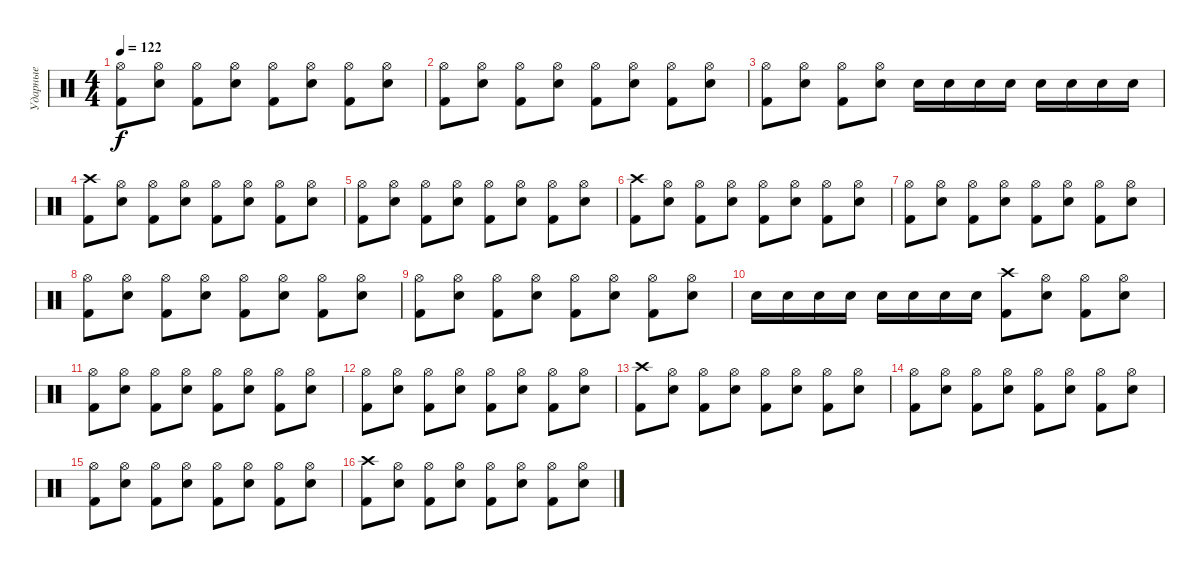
\track ("Ударные" "Ударные") {instrument percussion}
\staff {score}
\articulation defaults
\ts (4 4)
\tempo 122
\clef neutral
\ks c
("Kick (hit) 2" "Hi-Hat (open)").8{dy f} ("Snare (hit) 2" "Hi-Hat (open)").8 ("Kick (hit) 2" "Hi-Hat (open)").8 ("Snare (hit) 2" "Hi-Hat (open)").8 ("Kick (hit) 2" "Hi-Hat (open)").8 ("Snare (hit) 2" "Hi-Hat (open)").8 ("Kick (hit) 2" "Hi-Hat (open)").8 ("Snare (hit) 2" "Hi-Hat (open)").8 |
("Kick (hit) 2" "Hi-Hat (open)").8 ("Snare (hit) 2" "Hi-Hat (open)").8 ("Kick (hit) 2" "Hi-Hat (open)").8 ("Snare (hit) 2" "Hi-Hat (open)").8 ("Kick (hit) 2" "Hi-Hat (open)").8 ("Snare (hit) 2" "Hi-Hat (open)").8 ("Kick (hit) 2" "Hi-Hat (open)").8 ("Snare (hit) 2" "Hi-Hat (open)").8 |
("Kick (hit) 2" "Hi-Hat (open)").8 ("Snare (hit) 2" "Hi-Hat (open)").8 ("Kick (hit) 2" "Hi-Hat (open)").8 ("Snare (hit) 2" "Hi-Hat (open)").8 "Snare (hit) 2".16 "Snare (hit) 2".16 "Snare (hit) 2".16 "Snare (hit) 2".16 "Snare (hit) 2".16 "Snare (hit) 2".16 "Snare (hit) 2".16 "Snare (hit) 2".16 |
("Kick (hit) 2" "Crash high (hit)").8 ("Snare (hit) 2" "Hi-Hat (open)").8 ("Kick (hit) 2" "Hi-Hat (open)").8 ("Snare (hit) 2" "Hi-Hat (open)").8 ("Kick (hit) 2" "Hi-Hat (open)").8 ("Snare (hit) 2" "Hi-Hat (open)").8 ("Kick (hit) 2" "Hi-Hat (open)").8 ("Snare (hit) 2" "Hi-Hat (open)").8 |
("Kick (hit) 2" "Hi-Hat (open)").8 ("Snare (hit) 2" "Hi-Hat (open)").8 ("Kick (hit) 2" "Hi-Hat (open)").8 ("Snare (hit) 2" "Hi-Hat (open)").8 ("Kick (hit) 2" "Hi-Hat (open)").8 ("Snare (hit) 2" "Hi-Hat (open)").8 ("Kick (hit) 2" "Hi-Hat (open)").8 ("Snare (hit) 2" "Hi-Hat (open)").8 |
("Kick (hit) 2" "Crash high (hit)").8 ("Snare (hit) 2" "Hi-Hat (open)").8 ("Kick (hit) 2" "Hi-Hat (open)").8 ("Snare (hit) 2" "Hi-Hat (open)").8 ("Kick (hit) 2" "Hi-Hat (open)").8 ("Snare (hit) 2" "Hi-Hat (open)").8 ("Kick (hit) 2" "Hi-Hat (open)").8 ("Snare (hit) 2" "Hi-Hat (open)").8 |
("Kick (hit) 2" "Hi-Hat (open)").8 ("Snare (hit) 2" "Hi-Hat (open)").8 ("Kick (hit) 2" "Hi-Hat (open)").8 ("Snare (hit) 2" "Hi-Hat (open)").8 ("Kick (hit) 2" "Hi-Hat (open)").8 ("Snare (hit) 2" "Hi-Hat (open)").8 ("Kick (hit) 2" "Hi-Hat (open)").8 ("Snare (hit) 2" "Hi-Hat (open)").8 |
("Kick (hit) 2" "Hi-Hat (open)").8 ("Snare (hit) 2" "Hi-Hat (open)").8 ("Kick (hit) 2" "Hi-Hat (open)").8 ("Snare (hit) 2" "Hi-Hat (open)").8 ("Kick (hit) 2" "Hi-Hat (open)").8 ("Snare (hit) 2" "Hi-Hat (open)").8 ("Kick (hit) 2" "Hi-Hat (open)").8 ("Snare (hit) 2" "Hi-Hat (open)").8 |
("Kick (hit) 2" "Hi-Hat (open)").8 ("Snare (hit) 2" "Hi-Hat (open)").8 ("Kick (hit) 2" "Hi-Hat (open)").8 ("Snare (hit) 2" "Hi-Hat (open)").8 ("Kick (hit) 2" "Hi-Hat (open)").8 ("Snare (hit) 2" "Hi-Hat (open)").8 ("Kick (hit) 2" "Hi-Hat (open)").8 ("Snare (hit) 2" "Hi-Hat (open)").8 |
"Snare (hit) 2".16 "Snare (hit) 2".16 "Snare (hit) 2".16 "Snare (hit) 2".16 "Snare (hit) 2".16 "Snare (hit) 2".16 "Snare (hit) 2".16 "Snare (hit) 2".16 ("Kick (hit) 2" "Crash high (hit)").8 ("Snare (hit) 2" "Hi-Hat (open)").8 ("Kick (hit) 2" "Hi-Hat (open)").8 ("Snare (hit) 2" "Hi-Hat (open)").8 |
("Kick (hit) 2" "Hi-Hat (open)").8 ("Snare (hit) 2" "Hi-Hat (open)").8 ("Kick (hit) 2" "Hi-Hat (open)").8 ("Snare (hit) 2" "Hi-Hat (open)").8 ("Kick (hit) 2" "Hi-Hat (open)").8 ("Snare (hit) 2" "Hi-Hat (open)").8 ("Kick (hit) 2" "Hi-Hat (open)").8 ("Snare (hit) 2" "Hi-Hat (open)").8 |
("Kick (hit) 2" "Hi-Hat (open)").8 ("Snare (hit) 2" "Hi-Hat (open)").8 ("Kick (hit) 2" "Hi-Hat (open)").8 ("Snare (hit) 2" "Hi-Hat (open)").8 ("Kick (hit) 2" "Hi-Hat (open)").8 ("Snare (hit) 2" "Hi-Hat (open)").8 ("Kick (hit) 2" "Hi-Hat (open)").8 ("Snare (hit) 2" "Hi-Hat (open)").8 |
("Kick (hit) 2" "Crash high (hit)").8 ("Snare (hit) 2" "Hi-Hat (open)").8 ("Kick (hit) 2" "Hi-Hat (open)").8 ("Snare (hit) 2" "Hi-Hat (open)").8 ("Kick (hit) 2" "Hi-Hat (open)").8 ("Snare (hit) 2" "Hi-Hat (open)").8 ("Kick (hit) 2" "Hi-Hat (open)").8 ("Snare (hit) 2" "Hi-Hat (open)").8 |
("Kick (hit) 2" "Hi-Hat (open)").8 ("Snare (hit) 2" "Hi-Hat (open)").8 ("Kick (hit) 2" "Hi-Hat (open)").8 ("Snare (hit) 2" "Hi-Hat (open)").8 ("Kick (hit) 2" "Hi-Hat (open)").8 ("Snare (hit) 2" "Hi-Hat (open)").8 ("Kick (hit) 2" "Hi-Hat (open)").8 ("Snare (hit) 2" "Hi-Hat (open)").8 |
("Kick (hit) 2" "Hi-Hat (open)").8 ("Snare (hit) 2" "Hi-Hat (open)").8 ("Kick (hit) 2" "Hi-Hat (open)").8 ("Snare (hit) 2" "Hi-Hat (open)").8 ("Kick (hit) 2" "Hi-Hat (open)").8 ("Snare (hit) 2" "Hi-Hat (open)").8 ("Kick (hit) 2" "Hi-Hat (open)").8 ("Snare (hit) 2" "Hi-Hat (open)").8 |
("Kick (hit) 2" "Crash high (hit)").8 ("Snare (hit) 2" "Hi-Hat (open)").8 ("Kick (hit) 2" "Hi-Hat (open)").8 ("Snare (hit) 2" "Hi-Hat (open)").8 ("Kick (hit) 2" "Hi-Hat (open)").8 ("Snare (hit) 2" "Hi-Hat (open)").8 ("Kick (hit) 2" "Hi-Hat (open)").8 ("Snare (hit) 2" "Hi-Hat (open)").8
